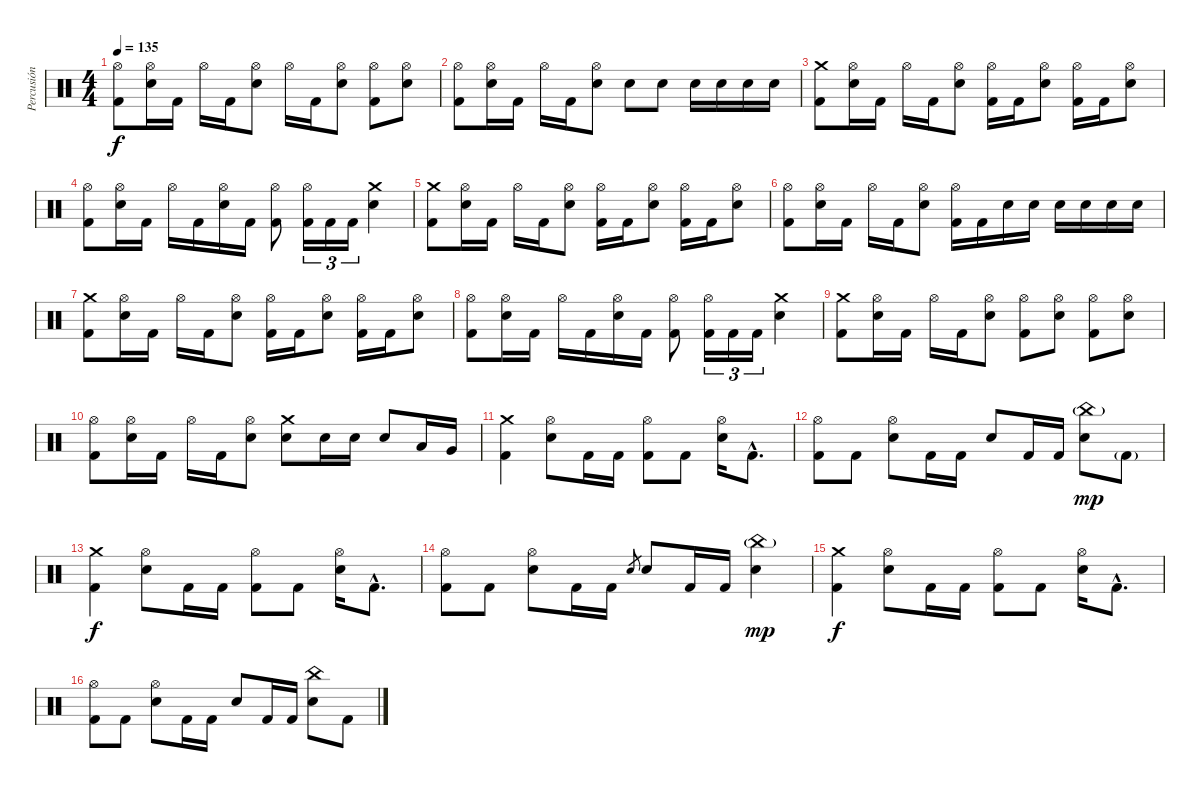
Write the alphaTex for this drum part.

\track ("Percusión" "Percusión") {instrument percussion}
\staff {score}
\articulation defaults
\ts (4 4)
\tempo 135
\clef neutral
\ks c
("Hi-Hat (open)" "Kick (hit) 2").8{dy f} ("Hi-Hat (open)" "Electric Snare (hit)").16 "Kick (hit) 2".16 "Hi-Hat (open)".16 "Kick (hit) 2".16 ("Hi-Hat (open)" "Electric Snare (hit)").8 "Hi-Hat (open)".16 "Kick (hit) 2".16 ("Hi-Hat (open)" "Electric Snare (hit)").8 ("Hi-Hat (open)" "Kick (hit) 2").8 ("Hi-Hat (open)" "Electric Snare (hit)").8 |
("Hi-Hat (open)" "Kick (hit) 2").8 ("Hi-Hat (open)" "Electric Snare (hit)").16 "Kick (hit) 2".16 "Hi-Hat (open)".16 "Kick (hit) 2".16 ("Hi-Hat (open)" "Electric Snare (hit)").8 "Electric Snare (hit)".8 "Electric Snare (hit)".8 "Electric Snare (hit)".16 "Electric Snare (hit)".16 "Electric Snare (hit)".16 "Electric Snare (hit)".16 |
("Crash medium (hit)" "Kick (hit) 2").8 ("Hi-Hat (open)" "Electric Snare (hit)").16 "Kick (hit) 2".16 "Hi-Hat (open)".16 "Kick (hit) 2".16 ("Hi-Hat (open)" "Electric Snare (hit)").8 ("Hi-Hat (open)" "Kick (hit) 2").16 "Kick (hit) 2".16 ("Hi-Hat (open)" "Electric Snare (hit)").8 ("Hi-Hat (open)" "Kick (hit) 2").16 "Kick (hit) 2".16 ("Hi-Hat (open)" "Electric Snare (hit)").8 |
("Hi-Hat (open)" "Kick (hit) 2").8 ("Hi-Hat (open)" "Electric Snare (hit)").16 "Kick (hit) 2".16 "Hi-Hat (open)".16 "Kick (hit) 2".16 ("Hi-Hat (open)" "Electric Snare (hit)").16 "Kick (hit) 2".16 ("Hi-Hat (open)" "Kick (hit) 2").8 ("Hi-Hat (open)" "Kick (hit) 2").16{tu (3 2)} "Kick (hit) 2".16{tu (3 2)} "Kick (hit) 2".16{tu (3 2)} ("Crash medium (hit)" "Electric Snare (hit)").4 |
("Crash medium (hit)" "Kick (hit) 2").8 ("Hi-Hat (open)" "Electric Snare (hit)").16 "Kick (hit) 2".16 "Hi-Hat (open)".16 "Kick (hit) 2".16 ("Hi-Hat (open)" "Electric Snare (hit)").8 ("Hi-Hat (open)" "Kick (hit) 2").16 "Kick (hit) 2".16 ("Hi-Hat (open)" "Electric Snare (hit)").8 ("Hi-Hat (open)" "Kick (hit) 2").16 "Kick (hit) 2".16 ("Hi-Hat (open)" "Electric Snare (hit)").8 |
("Hi-Hat (open)" "Kick (hit) 2").8 ("Hi-Hat (open)" "Electric Snare (hit)").16 "Kick (hit) 2".16 "Hi-Hat (open)".16 "Kick (hit) 2".16 ("Hi-Hat (open)" "Electric Snare (hit)").8 ("Hi-Hat (open)" "Kick (hit) 2").16 "Kick (hit) 2".16 "Electric Snare (hit)".16 "Electric Snare (hit)".16 "Electric Snare (hit)".16 "Electric Snare (hit)".16 "Electric Snare (hit)".16 "Electric Snare (hit)".16 |
("Crash medium (hit)" "Kick (hit) 2").8 ("Hi-Hat (open)" "Electric Snare (hit)").16 "Kick (hit) 2".16 "Hi-Hat (open)".16 "Kick (hit) 2".16 ("Hi-Hat (open)" "Electric Snare (hit)").8 ("Hi-Hat (open)" "Kick (hit) 2").16 "Kick (hit) 2".16 ("Hi-Hat (open)" "Electric Snare (hit)").8 ("Hi-Hat (open)" "Kick (hit) 2").16 "Kick (hit) 2".16 ("Hi-Hat (open)" "Electric Snare (hit)").8 |
("Hi-Hat (open)" "Kick (hit) 2").8 ("Hi-Hat (open)" "Electric Snare (hit)").16 "Kick (hit) 2".16 "Hi-Hat (open)".16 "Kick (hit) 2".16 ("Hi-Hat (open)" "Electric Snare (hit)").16 "Kick (hit) 2".16 ("Hi-Hat (open)" "Kick (hit) 2").8 ("Hi-Hat (open)" "Kick (hit) 2").16{tu (3 2)} "Kick (hit) 2".16{tu (3 2)} "Kick (hit) 2".16{tu (3 2)} ("Crash medium (hit)" "Electric Snare (hit)").4 |
("Crash medium (hit)" "Kick (hit) 2").8 ("Hi-Hat (open)" "Electric Snare (hit)").16 "Kick (hit) 2".16 "Hi-Hat (open)".16 "Kick (hit) 2".16 ("Hi-Hat (open)" "Electric Snare (hit)").8 ("Hi-Hat (open)" "Kick (hit) 2").8 ("Hi-Hat (open)" "Electric Snare (hit)").8 ("Hi-Hat (open)" "Kick (hit) 2").8 ("Hi-Hat (open)" "Electric Snare (hit)").8 |
("Hi-Hat (open)" "Kick (hit) 2").8 ("Hi-Hat (open)" "Electric Snare (hit)").16 "Kick (hit) 2".16 "Hi-Hat (open)".16 "Kick (hit) 2".16 ("Hi-Hat (open)" "Electric Snare (hit)").8 ("Crash medium (hit)" "Electric Snare (hit)").8 "Electric Snare (hit)".16 "Electric Snare (hit)".16 "Electric Snare (hit)".8 "Low Tom (hit)".16 "Very Low Tom (hit)".16 |
("Crash medium (hit)" "Kick (hit) 2").4 ("Hi-Hat (open)" "Electric Snare (hit)").8 "Kick (hit) 2".16 "Kick (hit) 2".16 ("Hi-Hat (open)" "Kick (hit) 2").8 "Kick (hit) 2".8 ("Hi-Hat (open)" "Electric Snare (hit)").16 "Kick (hit) 2"{hac}.8{d} |
("Hi-Hat (open)" "Kick (hit) 2").8 "Kick (hit) 2".8 ("Hi-Hat (open)" "Electric Snare (hit)").8 "Kick (hit) 2".16 "Kick (hit) 2".16 "Electric Snare (hit)".8 "Kick (hit) 2".16 "Kick (hit) 2".16 ("China (hit)"{g} "Electric Snare (hit)").8{dy mp} "Kick (hit) 2"{g}.8 |
("Crash medium (hit)" "Kick (hit) 2").4{dy f} ("Hi-Hat (open)" "Electric Snare (hit)").8 "Kick (hit) 2".16 "Kick (hit) 2".16 ("Hi-Hat (open)" "Kick (hit) 2").8 "Kick (hit) 2".8 ("Hi-Hat (open)" "Electric Snare (hit)").16 "Kick (hit) 2"{hac}.8{d} |
("Hi-Hat (open)" "Kick (hit) 2").8 "Kick (hit) 2".8 ("Hi-Hat (open)" "Electric Snare (hit)").8 "Kick (hit) 2".16 "Kick (hit) 2".16 "Electric Snare (hit)".8{gr} "Electric Snare (hit)".8 "Kick (hit) 2".16 "Kick (hit) 2".16 ("China (hit)"{g} "Electric Snare (hit)").4{dy mp} |
("Crash medium (hit)" "Kick (hit) 2").4{dy f} ("Hi-Hat (open)" "Electric Snare (hit)").8 "Kick (hit) 2".16 "Kick (hit) 2".16 ("Hi-Hat (open)" "Kick (hit) 2").8 "Kick (hit) 2".8 ("Hi-Hat (open)" "Electric Snare (hit)").16 "Kick (hit) 2"{hac}.8{d} |
("Hi-Hat (open)" "Kick (hit) 2").8 "Kick (hit) 2".8 ("Hi-Hat (open)" "Electric Snare (hit)").8 "Kick (hit) 2".16 "Kick (hit) 2".16 "Electric Snare (hit)".8 "Kick (hit) 2".16 "Kick (hit) 2".16 ("China (hit)" "Electric Snare (hit)").8 "Kick (hit) 2".8
